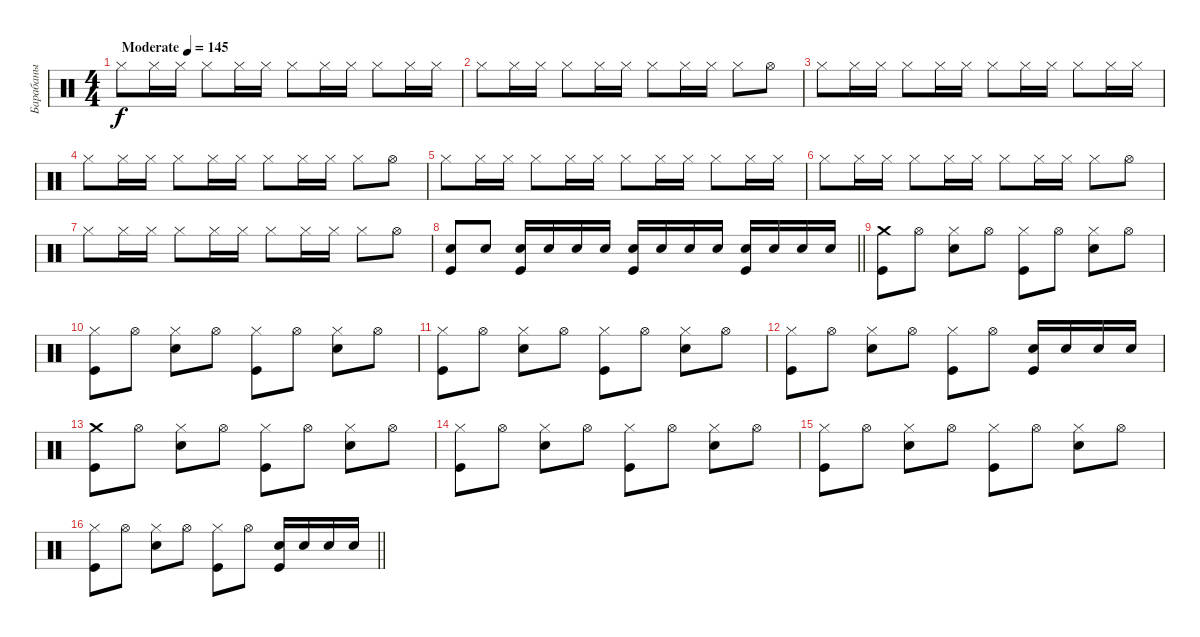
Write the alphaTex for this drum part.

\track ("Барабаны" "Барабаны") {instrument percussion}
\staff {score}
\articulation defaults
\ts (4 4)
\tempo (145 "Moderate")
\clef neutral
\ks c "Hi-Hat (closed)".8{dy f} "Hi-Hat (closed)".16 "Hi-Hat (closed)".16 "Hi-Hat (closed)".8 "Hi-Hat (closed)".16 "Hi-Hat (closed)".16 "Hi-Hat (closed)".8 "Hi-Hat (closed)".16 "Hi-Hat (closed)".16 "Hi-Hat (closed)".8 "Hi-Hat (closed)".16 "Hi-Hat (closed)".16
|
"Hi-Hat (closed)".8 "Hi-Hat (closed)".16 "Hi-Hat (closed)".16 "Hi-Hat (closed)".8 "Hi-Hat (closed)".16 "Hi-Hat (closed)".16 "Hi-Hat (closed)".8 "Hi-Hat (closed)".16 "Hi-Hat (closed)".16 "Hi-Hat (closed)".8 "Hi-Hat (open)".8 |
"Hi-Hat (closed)".8 "Hi-Hat (closed)".16 "Hi-Hat (closed)".16 "Hi-Hat (closed)".8 "Hi-Hat (closed)".16 "Hi-Hat (closed)".16 "Hi-Hat (closed)".8 "Hi-Hat (closed)".16 "Hi-Hat (closed)".16 "Hi-Hat (closed)".8 "Hi-Hat (closed)".16 "Hi-Hat (closed)".16 |
"Hi-Hat (closed)".8 "Hi-Hat (closed)".16 "Hi-Hat (closed)".16 "Hi-Hat (closed)".8 "Hi-Hat (closed)".16 "Hi-Hat (closed)".16 "Hi-Hat (closed)".8 "Hi-Hat (closed)".16 "Hi-Hat (closed)".16 "Hi-Hat (closed)".8 "Hi-Hat (open)".8 |
"Hi-Hat (closed)".8 "Hi-Hat (closed)".16 "Hi-Hat (closed)".16 "Hi-Hat (closed)".8 "Hi-Hat (closed)".16 "Hi-Hat (closed)".16 "Hi-Hat (closed)".8 "Hi-Hat (closed)".16 "Hi-Hat (closed)".16 "Hi-Hat (closed)".8 "Hi-Hat (closed)".16 "Hi-Hat (closed)".16 |
"Hi-Hat (closed)".8 "Hi-Hat (closed)".16 "Hi-Hat (closed)".16 "Hi-Hat (closed)".8 "Hi-Hat (closed)".16 "Hi-Hat (closed)".16 "Hi-Hat (closed)".8 "Hi-Hat (closed)".16 "Hi-Hat (closed)".16 "Hi-Hat (closed)".8 "Hi-Hat (open)".8 |
"Hi-Hat (closed)".8 "Hi-Hat (closed)".16 "Hi-Hat (closed)".16 "Hi-Hat (closed)".8 "Hi-Hat (closed)".16 "Hi-Hat (closed)".16 "Hi-Hat (closed)".8 "Hi-Hat (closed)".16 "Hi-Hat (closed)".16 "Hi-Hat (closed)".8 "Hi-Hat (open)".8 |
\barLineRight lightlight
("Electric Snare (hit)" "Kick (hit)").8 "Electric Snare (hit)".8 ("Electric Snare (hit)" "Kick (hit)").16 "Electric Snare (hit)".16 "Electric Snare (hit)".16 "Electric Snare (hit)".16 ("Electric Snare (hit)" "Kick (hit)").16 "Electric Snare (hit)".16 "Electric Snare (hit)".16 "Electric Snare (hit)".16 ("Electric Snare (hit)" "Kick (hit)").16 "Electric Snare (hit)".16 "Electric Snare (hit)".16 "Electric Snare (hit)".16 |
("Crash medium (hit)" "Kick (hit)").8 "Hi-Hat (open)".8 ("Hi-Hat (closed)" "Electric Snare (hit)").8 "Hi-Hat (open)".8 ("Hi-Hat (closed)" "Kick (hit)").8 "Hi-Hat (open)".8 ("Hi-Hat (closed)" "Electric Snare (hit)").8 "Hi-Hat (open)".8 |
("Hi-Hat (closed)" "Kick (hit)").8 "Hi-Hat (open)".8 ("Hi-Hat (closed)" "Electric Snare (hit)").8 "Hi-Hat (open)".8 ("Hi-Hat (closed)" "Kick (hit)").8 "Hi-Hat (open)".8 ("Hi-Hat (closed)" "Electric Snare (hit)").8 "Hi-Hat (open)".8 |
("Hi-Hat (closed)" "Kick (hit)").8 "Hi-Hat (open)".8 ("Hi-Hat (closed)" "Electric Snare (hit)").8 "Hi-Hat (open)".8 ("Hi-Hat (closed)" "Kick (hit)").8 "Hi-Hat (open)".8 ("Hi-Hat (closed)" "Electric Snare (hit)").8 "Hi-Hat (open)".8 |
("Hi-Hat (closed)" "Kick (hit)").8 "Hi-Hat (open)".8 ("Hi-Hat (closed)" "Electric Snare (hit)").8 "Hi-Hat (open)".8 ("Hi-Hat (closed)" "Kick (hit)").8 "Hi-Hat (open)".8 ("Electric Snare (hit)" "Kick (hit)").16 "Electric Snare (hit)".16 "Electric Snare (hit)".16 "Electric Snare (hit)".16 |
("Crash medium (hit)" "Kick (hit)").8 "Hi-Hat (open)".8 ("Hi-Hat (closed)" "Electric Snare (hit)").8 "Hi-Hat (open)".8 ("Hi-Hat (closed)" "Kick (hit)").8 "Hi-Hat (open)".8 ("Hi-Hat (closed)" "Electric Snare (hit)").8 "Hi-Hat (open)".8 |
("Hi-Hat (closed)" "Kick (hit)").8 "Hi-Hat (open)".8 ("Hi-Hat (closed)" "Electric Snare (hit)").8 "Hi-Hat (open)".8 ("Hi-Hat (closed)" "Kick (hit)").8 "Hi-Hat (open)".8 ("Hi-Hat (closed)" "Electric Snare (hit)").8 "Hi-Hat (open)".8 |
("Hi-Hat (closed)" "Kick (hit)").8 "Hi-Hat (open)".8 ("Hi-Hat (closed)" "Electric Snare (hit)").8 "Hi-Hat (open)".8 ("Hi-Hat (closed)" "Kick (hit)").8 "Hi-Hat (open)".8 ("Hi-Hat (closed)" "Electric Snare (hit)").8 "Hi-Hat (open)".8 |
\barLineRight lightlight
("Hi-Hat (closed)" "Kick (hit)").8 "Hi-Hat (open)".8 ("Hi-Hat (closed)" "Electric Snare (hit)").8 "Hi-Hat (open)".8 ("Hi-Hat (closed)" "Kick (hit)").8 "Hi-Hat (open)".8 ("Electric Snare (hit)" "Kick (hit)").16 "Electric Snare (hit)".16 "Electric Snare (hit)".16 "Electric Snare (hit)".16
